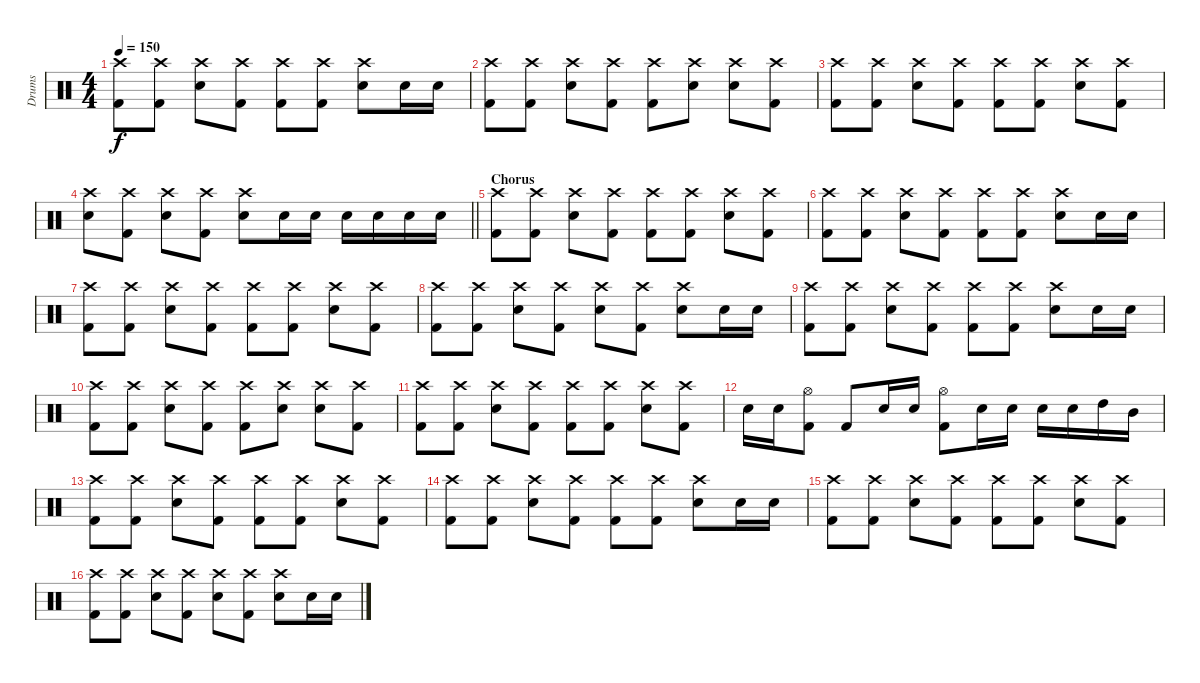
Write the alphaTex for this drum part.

\track ("Drums" "Drums") {instrument percussion}
\staff {score}
\articulation defaults
\ts (4 4)
\tempo 150
\clef neutral
\ks c
("Crash high (hit)" "Kick (hit) 2").8{dy f} ("Crash high (hit)" "Kick (hit) 2").8 ("Crash high (hit)" "Electric Snare (hit)").8 ("Crash high (hit)" "Kick (hit) 2").8 ("Crash high (hit)" "Kick (hit) 2").8 ("Crash high (hit)" "Kick (hit) 2").8 ("Crash high (hit)" "Electric Snare (hit)").8 "Electric Snare (hit)".16 "Electric Snare (hit)".16 |
("Crash high (hit)" "Kick (hit) 2").8 ("Crash high (hit)" "Kick (hit) 2").8 ("Crash high (hit)" "Electric Snare (hit)").8 ("Crash high (hit)" "Kick (hit) 2").8 ("Crash high (hit)" "Kick (hit) 2").8 ("Crash high (hit)" "Electric Snare (hit)").8 ("Crash high (hit)" "Electric Snare (hit)").8 ("Crash high (hit)" "Kick (hit) 2").8 |
("Crash high (hit)" "Kick (hit) 2").8 ("Crash high (hit)" "Kick (hit) 2").8 ("Crash high (hit)" "Electric Snare (hit)").8 ("Crash high (hit)" "Kick (hit) 2").8 ("Crash high (hit)" "Kick (hit) 2").8 ("Crash high (hit)" "Kick (hit) 2").8 ("Crash high (hit)" "Electric Snare (hit)").8 ("Crash high (hit)" "Kick (hit) 2").8 |
\barLineRight lightlight
("Crash high (hit)" "Electric Snare (hit)").8 ("Crash high (hit)" "Kick (hit) 2").8 ("Crash high (hit)" "Electric Snare (hit)").8 ("Crash high (hit)" "Kick (hit) 2").8 ("Crash high (hit)" "Electric Snare (hit)").8 "Electric Snare (hit)".16 "Electric Snare (hit)".16 "Electric Snare (hit)".16 "Electric Snare (hit)".16 "Electric Snare (hit)".16 "Electric Snare (hit)".16 |
\section ("" "Chorus")
("Crash high (hit)" "Kick (hit) 2").8 ("Crash high (hit)" "Kick (hit) 2").8 ("Crash high (hit)" "Electric Snare (hit)").8 ("Crash high (hit)" "Kick (hit) 2").8 ("Crash high (hit)" "Kick (hit) 2").8 ("Crash high (hit)" "Kick (hit) 2").8 ("Crash high (hit)" "Electric Snare (hit)").8 ("Crash high (hit)" "Kick (hit) 2").8 |
("Crash high (hit)" "Kick (hit) 2").8 ("Crash high (hit)" "Kick (hit) 2").8 ("Crash high (hit)" "Electric Snare (hit)").8 ("Crash high (hit)" "Kick (hit) 2").8 ("Crash high (hit)" "Kick (hit) 2").8 ("Crash high (hit)" "Kick (hit) 2").8 ("Crash high (hit)" "Electric Snare (hit)").8 "Electric Snare (hit)".16 "Electric Snare (hit)".16 |
("Crash high (hit)" "Kick (hit) 2").8 ("Crash high (hit)" "Kick (hit) 2").8 ("Crash high (hit)" "Electric Snare (hit)").8 ("Crash high (hit)" "Kick (hit) 2").8 ("Crash high (hit)" "Kick (hit) 2").8 ("Crash high (hit)" "Kick (hit) 2").8 ("Crash high (hit)" "Electric Snare (hit)").8 ("Crash high (hit)" "Kick (hit) 2").8 |
("Crash high (hit)" "Kick (hit) 2").8 ("Crash high (hit)" "Kick (hit) 2").8 ("Crash high (hit)" "Electric Snare (hit)").8 ("Crash high (hit)" "Kick (hit) 2").8 ("Crash high (hit)" "Electric Snare (hit)").8 ("Crash high (hit)" "Kick (hit) 2").8 ("Crash high (hit)" "Electric Snare (hit)").8 "Electric Snare (hit)".16 "Electric Snare (hit)".16 |
("Crash high (hit)" "Kick (hit) 2").8 ("Crash high (hit)" "Kick (hit) 2").8 ("Crash high (hit)" "Electric Snare (hit)").8 ("Crash high (hit)" "Kick (hit) 2").8 ("Crash high (hit)" "Kick (hit) 2").8 ("Crash high (hit)" "Kick (hit) 2").8 ("Crash high (hit)" "Electric Snare (hit)").8 "Electric Snare (hit)".16 "Electric Snare (hit)".16 |
("Crash high (hit)" "Kick (hit) 2").8 ("Crash high (hit)" "Kick (hit) 2").8 ("Crash high (hit)" "Electric Snare (hit)").8 ("Crash high (hit)" "Kick (hit) 2").8 ("Crash high (hit)" "Kick (hit) 2").8 ("Crash high (hit)" "Electric Snare (hit)").8 ("Crash high (hit)" "Electric Snare (hit)").8 ("Crash high (hit)" "Kick (hit) 2").8 |
("Crash high (hit)" "Kick (hit) 2").8 ("Crash high (hit)" "Kick (hit) 2").8 ("Crash high (hit)" "Electric Snare (hit)").8 ("Crash high (hit)" "Kick (hit) 2").8 ("Crash high (hit)" "Kick (hit) 2").8 ("Crash high (hit)" "Kick (hit) 2").8 ("Crash high (hit)" "Electric Snare (hit)").8 ("Crash high (hit)" "Kick (hit) 2").8 |
"Electric Snare (hit)".16 "Electric Snare (hit)".16 ("Hi-Hat (open)" "Kick (hit) 2").8 "Kick (hit) 2".8 "Electric Snare (hit)".16 "Electric Snare (hit)".16 ("Hi-Hat (open)" "Kick (hit) 2").8 "Electric Snare (hit)".16 "Electric Snare (hit)".16 "Electric Snare (hit)".16 "Electric Snare (hit)".16 "High Tom (hit)".16 "Mid Tom (hit)".16 |
("Crash high (hit)" "Kick (hit) 2").8 ("Crash high (hit)" "Kick (hit) 2").8 ("Crash high (hit)" "Electric Snare (hit)").8 ("Crash high (hit)" "Kick (hit) 2").8 ("Crash high (hit)" "Kick (hit) 2").8 ("Crash high (hit)" "Kick (hit) 2").8 ("Crash high (hit)" "Electric Snare (hit)").8 ("Crash high (hit)" "Kick (hit) 2").8 |
("Crash high (hit)" "Kick (hit) 2").8 ("Crash high (hit)" "Kick (hit) 2").8 ("Crash high (hit)" "Electric Snare (hit)").8 ("Crash high (hit)" "Kick (hit) 2").8 ("Crash high (hit)" "Kick (hit) 2").8 ("Crash high (hit)" "Kick (hit) 2").8 ("Crash high (hit)" "Electric Snare (hit)").8 "Electric Snare (hit)".16 "Electric Snare (hit)".16 |
("Crash high (hit)" "Kick (hit) 2").8 ("Crash high (hit)" "Kick (hit) 2").8 ("Crash high (hit)" "Electric Snare (hit)").8 ("Crash high (hit)" "Kick (hit) 2").8 ("Crash high (hit)" "Kick (hit) 2").8 ("Crash high (hit)" "Kick (hit) 2").8 ("Crash high (hit)" "Electric Snare (hit)").8 ("Crash high (hit)" "Kick (hit) 2").8 |
("Crash high (hit)" "Kick (hit) 2").8 ("Crash high (hit)" "Kick (hit) 2").8 ("Crash high (hit)" "Electric Snare (hit)").8 ("Crash high (hit)" "Kick (hit) 2").8 ("Crash high (hit)" "Electric Snare (hit)").8 ("Crash high (hit)" "Kick (hit) 2").8 ("Crash high (hit)" "Electric Snare (hit)").8 "Electric Snare (hit)".16 "Electric Snare (hit)".16
